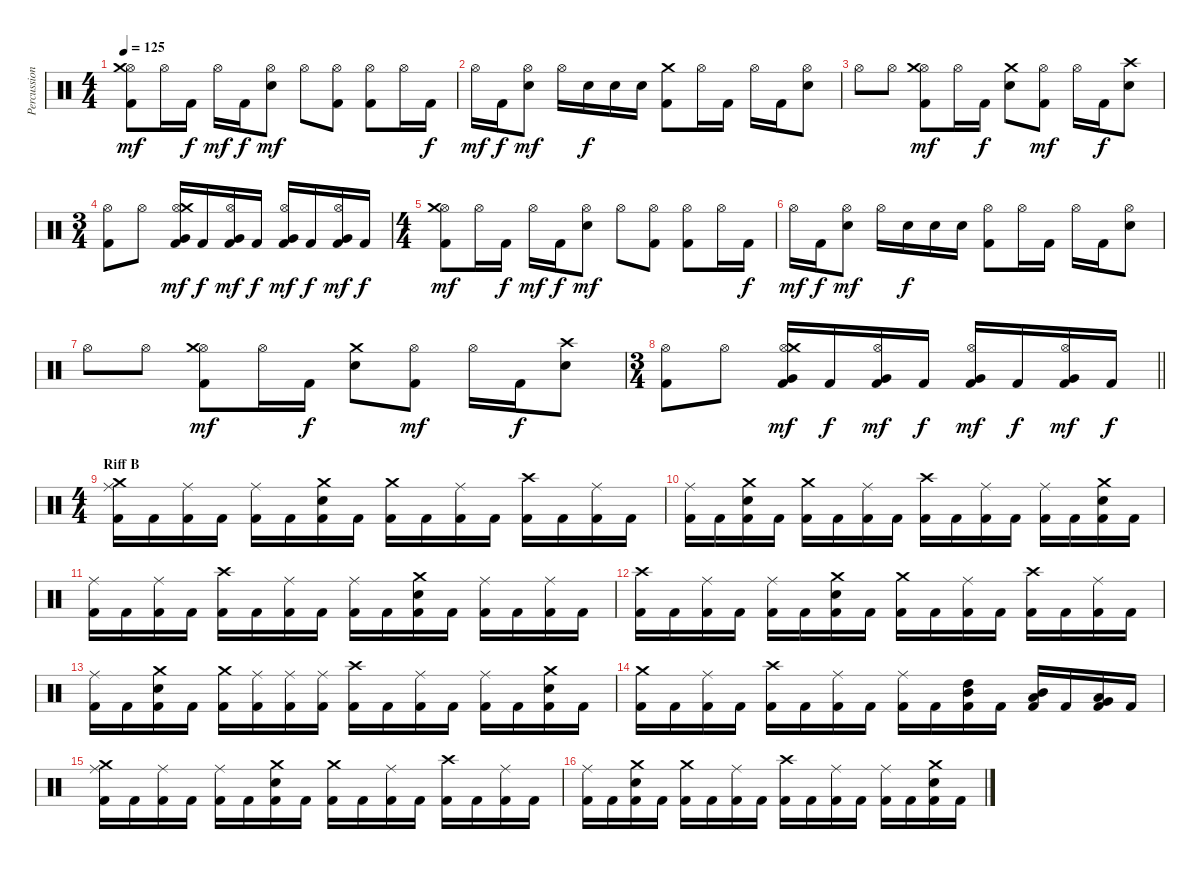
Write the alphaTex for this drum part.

\track ("Percussion" "Percussion") {instrument percussion}
\staff {score}
\articulation defaults
\ts (4 4)
\tempo 125
\clef neutral
\ks c
("Kick (hit) 2" "Hi-Hat (open)" "Crash medium (hit)").8{dy mf} "Hi-Hat (open)".16 "Kick (hit) 2".16{dy f} "Hi-Hat (open)".16{dy mf} "Kick (hit) 2".16{dy f} ("Snare (hit) 2" "Hi-Hat (open)").8{dy mf} "Hi-Hat (open)".8 ("Kick (hit) 2" "Hi-Hat (open)").8 ("Kick (hit) 2" "Hi-Hat (open)").8 "Hi-Hat (open)".16 "Kick (hit) 2".16{dy f} |
"Hi-Hat (open)".16{dy mf} "Kick (hit) 2".16{dy f} ("Snare (hit) 2" "Hi-Hat (open)").8{dy mf} "Hi-Hat (open)".16 "Snare (hit) 2".16{dy f} "Snare (hit) 2".16 "Snare (hit) 2".16 ("Kick (hit) 2" "Crash medium (hit)").8 "Hi-Hat (open)".16 "Kick (hit) 2".16 "Hi-Hat (open)".16 "Kick (hit) 2".16 ("Snare (hit) 2" "Hi-Hat (open)").8 |
"Hi-Hat (open)".8 "Hi-Hat (open)".8 ("Kick (hit) 2" "Hi-Hat (open)" "Crash medium (hit)").8{dy mf} "Hi-Hat (open)".16 "Kick (hit) 2".16{dy f} ("Snare (hit) 2" "Crash medium (hit)").8 ("Kick (hit) 2" "Hi-Hat (open)").8{dy mf} "Hi-Hat (open)".16 "Kick (hit) 2".16{dy f} ("Snare (hit) 2" "Crash high (hit)").8 |
\ts (3 4)
("Kick (hit) 2" "Hi-Hat (open)").8 "Hi-Hat (open)".8 ("Kick (hit) 2" "Very Low Tom (hit)" "Hi-Hat (open)" "Crash medium (hit)").16{dy mf} "Kick (hit) 2".16{dy f} ("Kick (hit) 2" "Very Low Tom (hit)" "Hi-Hat (open)").16{dy mf} "Kick (hit) 2".16{dy f} ("Kick (hit) 2" "Very Low Tom (hit)" "Hi-Hat (open)").16{dy mf} "Kick (hit) 2".16{dy f} ("Kick (hit) 2" "Very Low Tom (hit)" "Hi-Hat (open)").16{dy mf} "Kick (hit) 2".16{dy f} |
\ts (4 4)
("Kick (hit) 2" "Hi-Hat (open)" "Crash medium (hit)").8{dy mf} "Hi-Hat (open)".16 "Kick (hit) 2".16{dy f} "Hi-Hat (open)".16{dy mf} "Kick (hit) 2".16{dy f} ("Snare (hit) 2" "Hi-Hat (open)").8{dy mf} "Hi-Hat (open)".8 ("Kick (hit) 2" "Hi-Hat (open)").8 ("Kick (hit) 2" "Hi-Hat (open)").8 "Hi-Hat (open)".16 "Kick (hit) 2".16{dy f} |
"Hi-Hat (open)".16{dy mf} "Kick (hit) 2".16{dy f} ("Snare (hit) 2" "Hi-Hat (open)").8{dy mf} "Hi-Hat (open)".16 "Snare (hit) 2".16{dy f} "Snare (hit) 2".16 "Snare (hit) 2".16 ("Kick (hit) 2" "Hi-Hat (open)").8 "Hi-Hat (open)".16 "Kick (hit) 2".16 "Hi-Hat (open)".16 "Kick (hit) 2".16 ("Snare (hit) 2" "Hi-Hat (open)").8 |
"Hi-Hat (open)".8 "Hi-Hat (open)".8 ("Kick (hit) 2" "Hi-Hat (open)" "Crash medium (hit)").8{dy mf} "Hi-Hat (open)".16 "Kick (hit) 2".16{dy f} ("Snare (hit) 2" "Crash medium (hit)").8 ("Kick (hit) 2" "Hi-Hat (open)").8{dy mf} "Hi-Hat (open)".16 "Kick (hit) 2".16{dy f} ("Snare (hit) 2" "Crash high (hit)").8 |
\ts (3 4)
\barLineRight lightlight
("Kick (hit) 2" "Hi-Hat (open)").8 "Hi-Hat (open)".8 ("Kick (hit) 2" "Very Low Tom (hit)" "Hi-Hat (open)" "Crash medium (hit)").16{dy mf} "Kick (hit) 2".16{dy f} ("Kick (hit) 2" "Very Low Tom (hit)" "Hi-Hat (open)").16{dy mf} "Kick (hit) 2".16{dy f} ("Kick (hit) 2" "Very Low Tom (hit)" "Hi-Hat (open)").16{dy mf} "Kick (hit) 2".16{dy f} ("Kick (hit) 2" "Very Low Tom (hit)" "Hi-Hat (open)").16{dy mf} "Kick (hit) 2".16{dy f} |
\ts (4 4)
\section ("" "Riff B")
("Kick (hit) 2" "Ride (middle)" "Crash medium (hit)").16 "Kick (hit) 2".16 ("Kick (hit) 2" "Ride (middle)").16 "Kick (hit) 2".16 ("Kick (hit) 2" "Ride (middle)").16 "Kick (hit) 2".16 ("Kick (hit) 2" "Snare (hit) 2" "Crash medium (hit)").16 "Kick (hit) 2".16 ("Kick (hit) 2" "Crash medium (hit)").16 "Kick (hit) 2".16 ("Kick (hit) 2" "Ride (middle)").16 "Kick (hit) 2".16 ("Kick (hit) 2" "Crash high (hit)").16 "Kick (hit) 2".16 ("Kick (hit) 2" "Ride (middle)").16 "Kick (hit) 2".16 |
("Kick (hit) 2" "Ride (middle)").16 "Kick (hit) 2".16 ("Kick (hit) 2" "Snare (hit) 2" "Crash medium (hit)").16 "Kick (hit) 2".16 ("Kick (hit) 2" "Crash medium (hit)").16 "Kick (hit) 2".16 ("Kick (hit) 2" "Ride (middle)").16 "Kick (hit) 2".16 ("Kick (hit) 2" "Crash high (hit)").16 "Kick (hit) 2".16 ("Kick (hit) 2" "Ride (middle)").16 "Kick (hit) 2".16 ("Kick (hit) 2" "Ride (middle)").16 "Kick (hit) 2".16 ("Kick (hit) 2" "Snare (hit) 2" "Crash medium (hit)").16 "Kick (hit) 2".16 |
("Kick (hit) 2" "Ride (middle)").16 "Kick (hit) 2".16 ("Kick (hit) 2" "Ride (middle)").16 "Kick (hit) 2".16 ("Kick (hit) 2" "Crash high (hit)").16 "Kick (hit) 2".16 ("Kick (hit) 2" "Ride (middle)").16 "Kick (hit) 2".16 ("Kick (hit) 2" "Ride (middle)").16 "Kick (hit) 2".16 ("Kick (hit) 2" "Snare (hit) 2" "Crash medium (hit)").16 "Kick (hit) 2".16 ("Kick (hit) 2" "Ride (middle)").16 "Kick (hit) 2".16 ("Kick (hit) 2" "Ride (middle)").16 "Kick (hit) 2".16 |
("Kick (hit) 2" "Crash high (hit)").16 "Kick (hit) 2".16 ("Kick (hit) 2" "Ride (middle)").16 "Kick (hit) 2".16 ("Kick (hit) 2" "Ride (middle)").16 "Kick (hit) 2".16 ("Kick (hit) 2" "Snare (hit) 2" "Crash medium (hit)").16 "Kick (hit) 2".16 ("Kick (hit) 2" "Crash medium (hit)").16 "Kick (hit) 2".16 ("Kick (hit) 2" "Ride (middle)").16 "Kick (hit) 2".16 ("Kick (hit) 2" "Crash high (hit)").16 "Kick (hit) 2".16 ("Kick (hit) 2" "Ride (middle)").16 "Kick (hit) 2".16 |
("Kick (hit) 2" "Ride (middle)").16 "Kick (hit) 2".16 ("Kick (hit) 2" "Snare (hit) 2" "Crash medium (hit)").16 "Kick (hit) 2".16 ("Kick (hit) 2" "Crash medium (hit)").16 ("Kick (hit) 2" "Ride (middle)").16 ("Kick (hit) 2" "Ride (middle)").16 ("Kick (hit) 2" "Ride (middle)").16 ("Kick (hit) 2" "Crash high (hit)").16 "Kick (hit) 2".16 ("Kick (hit) 2" "Ride (middle)").16 "Kick (hit) 2".16 ("Kick (hit) 2" "Ride (middle)").16 "Kick (hit) 2".16 ("Kick (hit) 2" "Snare (hit) 2" "Crash medium (hit)").16 "Kick (hit) 2".16 |
("Kick (hit) 2" "Crash medium (hit)").16 "Kick (hit) 2".16 ("Kick (hit) 2" "Ride (middle)").16 "Kick (hit) 2".16 ("Kick (hit) 2" "Crash high (hit)").16 "Kick (hit) 2".16 ("Kick (hit) 2" "Ride (middle)").16 "Kick (hit) 2".16 ("Kick (hit) 2" "Ride (middle)").16 "Kick (hit) 2".16 ("Kick (hit) 2" "Mid Tom (hit)" "High Tom (hit)").16 "Kick (hit) 2".16 ("Kick (hit) 2" "Mid Tom (hit)" "Low Tom (hit)").16 "Kick (hit) 2".16 ("Kick (hit) 2" "Low Tom (hit)" "Very Low Tom (hit)").16 "Kick (hit) 2".16 |
("Kick (hit) 2" "Ride (middle)" "Crash medium (hit)").16 "Kick (hit) 2".16 ("Kick (hit) 2" "Ride (middle)").16 "Kick (hit) 2".16 ("Kick (hit) 2" "Ride (middle)").16 "Kick (hit) 2".16 ("Kick (hit) 2" "Snare (hit) 2" "Crash medium (hit)").16 "Kick (hit) 2".16 ("Kick (hit) 2" "Crash medium (hit)").16 "Kick (hit) 2".16 ("Kick (hit) 2" "Ride (middle)").16 "Kick (hit) 2".16 ("Kick (hit) 2" "Crash high (hit)").16 "Kick (hit) 2".16 ("Kick (hit) 2" "Ride (middle)").16 "Kick (hit) 2".16 |
("Kick (hit) 2" "Ride (middle)").16 "Kick (hit) 2".16 ("Kick (hit) 2" "Snare (hit) 2" "Crash medium (hit)").16 "Kick (hit) 2".16 ("Kick (hit) 2" "Crash medium (hit)").16 "Kick (hit) 2".16 ("Kick (hit) 2" "Ride (middle)").16 "Kick (hit) 2".16 ("Kick (hit) 2" "Crash high (hit)").16 "Kick (hit) 2".16 ("Kick (hit) 2" "Ride (middle)").16 "Kick (hit) 2".16 ("Kick (hit) 2" "Ride (middle)").16 "Kick (hit) 2".16 ("Kick (hit) 2" "Snare (hit) 2" "Crash medium (hit)").16 "Kick (hit) 2".16
